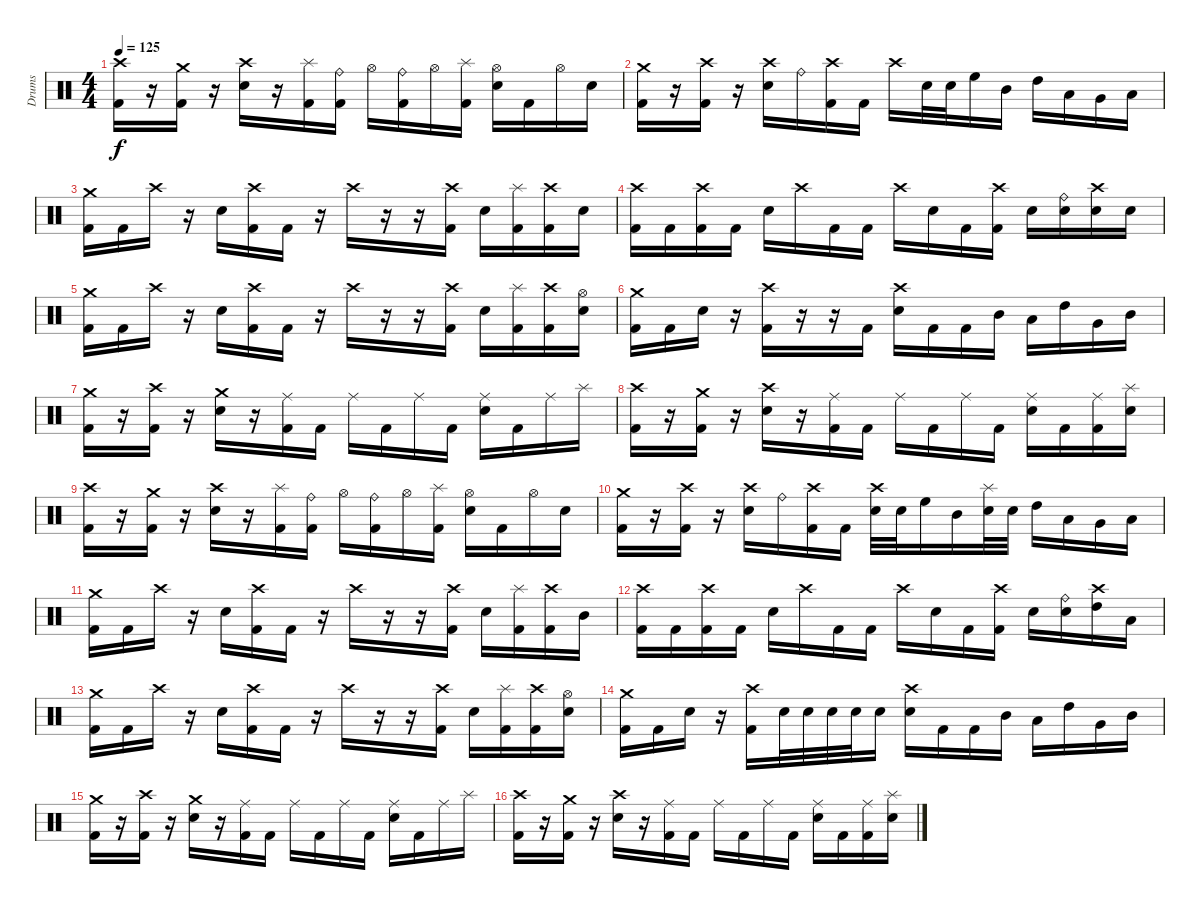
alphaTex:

\track ("Drums" "Drums") {instrument percussion}
\staff {score}
\articulation defaults
\ts (4 4)
\tempo 125
\clef neutral
\ks c
("Crash high (hit)" "Kick (hit) 2").16{dy f} r.16 ("Crash medium (hit)" "Kick (hit) 2").16 r.16 ("Crash high (hit)" "Electric Snare (hit)").16 r.16 ("Splash (hit)" "Kick (hit) 2").16 ("Ride (bell)" "Kick (hit) 2").16 "Hi-Hat (open)".16 ("Ride (bell)" "Kick (hit) 2").16 "Hi-Hat (open)".16 ("Splash (hit)" "Kick (hit) 2").16 ("Hi-Hat (open)" "Electric Snare (hit)").16 "Kick (hit) 2".16 "Hi-Hat (open)".16 "Electric Snare (hit)".16 |
("Crash medium (hit)" "Kick (hit) 2").16 r.16 ("Crash high (hit)" "Kick (hit) 2").16 r.16 ("Crash high (hit)" "Electric Snare (hit)").16 "Ride (bell)".16 ("Crash high (hit)" "Kick (hit) 2").16 "Kick (hit) 2".16 "Crash high (hit)".16 "Electric Snare (hit)".32 "Electric Snare (hit)".32 "High Floor Tom (hit)".16 "Mid Tom (hit)".16 "High Tom (hit)".16 "Low Tom (hit)".16 "Very Low Tom (hit)".16 "Low Floor Tom (hit)".16 |
("Crash medium (hit)" "Kick (hit) 2").16 "Kick (hit) 2".16 "Crash high (hit)".16 r.16 "Electric Snare (hit)".16 ("Crash high (hit)" "Kick (hit) 2").16 "Kick (hit) 2".16 r.16 "Crash high (hit)".16 r.16 r.16 ("Crash high (hit)" "Kick (hit) 2").16 "Electric Snare (hit)".16 ("Splash (hit)" "Kick (hit) 2").16 ("Crash high (hit)" "Kick (hit) 2").16 "Electric Snare (hit)".16 |
("Crash high (hit)" "Kick (hit) 2").16 "Kick (hit) 2".16 ("Crash high (hit)" "Kick (hit) 2").16 "Kick (hit) 2".16 "Electric Snare (hit)".16 "Crash high (hit)".16 "Kick (hit) 2".16 "Kick (hit) 2".16 "Crash high (hit)".16 "Electric Snare (hit)".16 "Kick (hit) 2".16 ("Crash high (hit)" "Kick (hit) 2").16 "Electric Snare (hit)".16 ("Ride (bell)" "Electric Snare (hit)").16 ("Crash high (hit)" "Electric Snare (hit)").16 "Electric Snare (hit)".16 |
("Crash medium (hit)" "Kick (hit) 2").16 "Kick (hit) 2".16 "Crash high (hit)".16 r.16 "Electric Snare (hit)".16 ("Crash high (hit)" "Kick (hit) 2").16 "Kick (hit) 2".16 r.16 "Crash high (hit)".16 r.16 r.16 ("Crash high (hit)" "Kick (hit) 2").16 "Electric Snare (hit)".16 ("Splash (hit)" "Kick (hit) 2").16 ("Crash high (hit)" "Kick (hit) 2").16 ("Hi-Hat (open)" "Electric Snare (hit)").16 |
("Crash medium (hit)" "Kick (hit) 2").16 "Kick (hit) 2".16 "Electric Snare (hit)".16 r.16 ("Crash high (hit)" "Kick (hit) 2").16 r.16 r.16 "Kick (hit) 2".16 ("Crash high (hit)" "Electric Snare (hit)").16 "Kick (hit) 2".16 "Kick (hit) 2".16 "Mid Tom (hit)".16 "Low Tom (hit)".16 "High Tom (hit)".16 "Very Low Tom (hit)".16 "Mid Tom (hit)".16 |
("Crash medium (hit)" "Kick (hit) 2").16 r.16 ("Crash high (hit)" "Kick (hit) 2").16 r.16 ("Crash medium (hit)" "Electric Snare (hit)").16 r.16 ("Ride (middle)" "Kick (hit) 2").16 "Kick (hit) 2".16 "Ride (middle)".16 "Kick (hit) 2".16 "Ride (middle)".16 "Kick (hit) 2".16 ("Ride (middle)" "Electric Snare (hit)").16 "Kick (hit) 2".16 "Ride (middle)".16 "Splash (hit)".16 |
("Crash high (hit)" "Kick (hit) 2").16 r.16 ("Crash medium (hit)" "Kick (hit) 2").16 r.16 ("Crash high (hit)" "Electric Snare (hit)").16 r.16 ("Ride (middle)" "Kick (hit) 2").16 "Kick (hit) 2".16 "Ride (middle)".16 "Kick (hit) 2".16 "Ride (middle)".16 "Kick (hit) 2".16 ("Ride (middle)" "Electric Snare (hit)").16 "Kick (hit) 2".16 ("Ride (middle)" "Kick (hit) 2").16 ("Splash (hit)" "Electric Snare (hit)").16 |
("Crash high (hit)" "Kick (hit) 2").16 r.16 ("Crash medium (hit)" "Kick (hit) 2").16 r.16 ("Crash high (hit)" "Electric Snare (hit)").16 r.16 ("Splash (hit)" "Kick (hit) 2").16 ("Ride (bell)" "Kick (hit) 2").16 "Hi-Hat (open)".16 ("Ride (bell)" "Kick (hit) 2").16 "Hi-Hat (open)".16 ("Splash (hit)" "Kick (hit) 2").16 ("Hi-Hat (open)" "Electric Snare (hit)").16 "Kick (hit) 2".16 "Hi-Hat (open)".16 "Electric Snare (hit)".16 |
("Crash medium (hit)" "Kick (hit) 2").16 r.16 ("Crash high (hit)" "Kick (hit) 2").16 r.16 ("Crash high (hit)" "Electric Snare (hit)").16 "Ride (bell)".16 ("Crash high (hit)" "Kick (hit) 2").16 "Kick (hit) 2".16 ("Crash high (hit)" "Electric Snare (hit)").32 "Electric Snare (hit)".32 "High Floor Tom (hit)".16 "Mid Tom (hit)".16 ("Splash (hit)" "Electric Snare (hit)").32 "Electric Snare (hit)".32 "High Tom (hit)".16 "Low Tom (hit)".16 "Very Low Tom (hit)".16 "Low Floor Tom (hit)".16 |
("Crash medium (hit)" "Kick (hit) 2").16 "Kick (hit) 2".16 "Crash high (hit)".16 r.16 "Electric Snare (hit)".16 ("Crash high (hit)" "Kick (hit) 2").16 "Kick (hit) 2".16 r.16 "Crash high (hit)".16 r.16 r.16 ("Crash high (hit)" "Kick (hit) 2").16 "Electric Snare (hit)".16 ("Splash (hit)" "Kick (hit) 2").16 ("Crash high (hit)" "Kick (hit) 2").16 "Mid Tom (hit)".16 |
("Crash high (hit)" "Kick (hit) 2").16 "Kick (hit) 2".16 ("Crash high (hit)" "Kick (hit) 2").16 "Kick (hit) 2".16 "Electric Snare (hit)".16 "Crash high (hit)".16 "Kick (hit) 2".16 "Kick (hit) 2".16 "Crash high (hit)".16 "Electric Snare (hit)".16 "Kick (hit) 2".16 ("Crash high (hit)" "Kick (hit) 2").16 "Electric Snare (hit)".16 ("Ride (bell)" "Electric Snare (hit)").16 ("Crash high (hit)" "High Tom (hit)").16 "Low Tom (hit)".16 |
("Crash medium (hit)" "Kick (hit) 2").16 "Kick (hit) 2".16 "Crash high (hit)".16 r.16 "Electric Snare (hit)".16 ("Crash high (hit)" "Kick (hit) 2").16 "Kick (hit) 2".16 r.16 "Crash high (hit)".16 r.16 r.16 ("Crash high (hit)" "Kick (hit) 2").16 "Electric Snare (hit)".16 ("Splash (hit)" "Kick (hit) 2").16 ("Crash high (hit)" "Kick (hit) 2").16 ("Hi-Hat (open)" "Electric Snare (hit)").16 |
("Crash medium (hit)" "Kick (hit) 2").16 "Kick (hit) 2".16 "Electric Snare (hit)".16 r.16 ("Crash high (hit)" "Kick (hit) 2").16 "Electric Snare (hit)".32 "Electric Snare (hit)".32 "Electric Snare (hit)".32 "Electric Snare (hit)".32 "Electric Snare (hit)".16 ("Crash high (hit)" "Electric Snare (hit)").16 "Kick (hit) 2".16 "Kick (hit) 2".16 "Mid Tom (hit)".16 "Low Tom (hit)".16 "High Tom (hit)".16 "Very Low Tom (hit)".16 "Mid Tom (hit)".16 |
("Crash medium (hit)" "Kick (hit) 2").16 r.16 ("Crash high (hit)" "Kick (hit) 2").16 r.16 ("Crash medium (hit)" "Electric Snare (hit)").16 r.16 ("Ride (middle)" "Kick (hit) 2").16 "Kick (hit) 2".16 "Ride (middle)".16 "Kick (hit) 2".16 "Ride (middle)".16 "Kick (hit) 2".16 ("Ride (middle)" "Electric Snare (hit)").16 "Kick (hit) 2".16 "Ride (middle)".16 "Splash (hit)".16 |
("Crash high (hit)" "Kick (hit) 2").16 r.16 ("Crash medium (hit)" "Kick (hit) 2").16 r.16 ("Crash high (hit)" "Electric Snare (hit)").16 r.16 ("Ride (middle)" "Kick (hit) 2").16 "Kick (hit) 2".16 "Ride (middle)".16 "Kick (hit) 2".16 "Ride (middle)".16 "Kick (hit) 2".16 ("Ride (middle)" "Electric Snare (hit)").16 "Kick (hit) 2".16 ("Ride (middle)" "Kick (hit) 2").16 ("Splash (hit)" "Electric Snare (hit)").16
